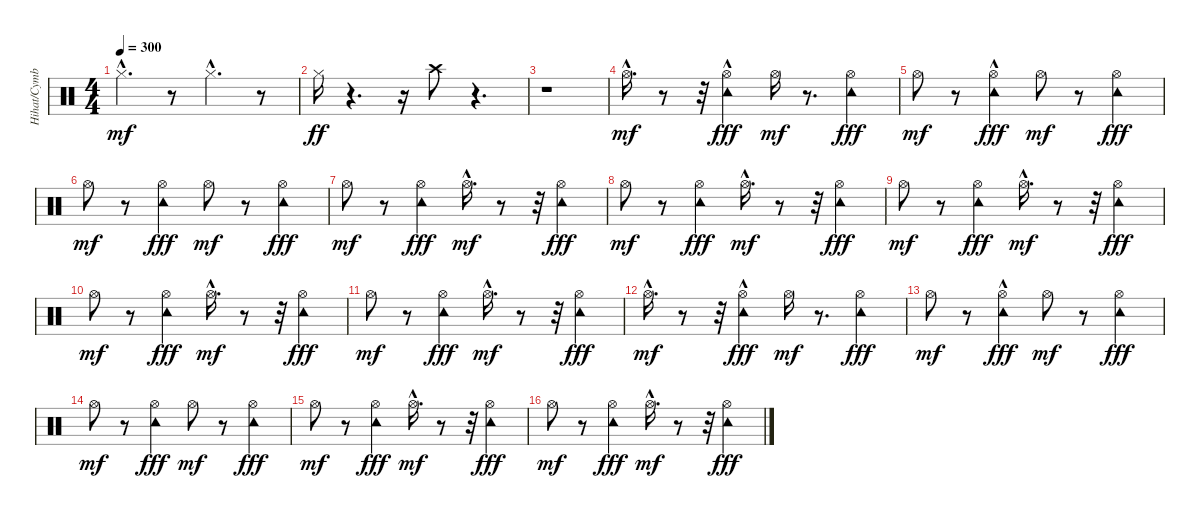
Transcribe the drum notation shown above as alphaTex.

\track ("Hihat/Cymbals/Tambourine" "Hihat/Cymb") {instrument percussion}
\staff {score}
\articulation defaults
\ts (4 4)
\tempo 300
\clef neutral
\ks c "Hi-Hat (closed)"{hac}.4{d dy mf}
r.8 "Hi-Hat (closed)"{hac}.4{d} r.8 |
"Hi-Hat (closed)".16{dy ff} r.4{d} r.16 "Crash high (hit)".8 r.4{d} |
r.1 |
"Hi-Hat (open)"{hac}.16{d dy mf} r.8 r.32 ("Hi-Hat (open)"{hac} "Tambourine (hit)").4{dy fff} "Hi-Hat (open)".16{dy mf} r.8{d} ("Hi-Hat (open)" "Tambourine (hit)").4{dy fff} |
"Hi-Hat (open)".8{dy mf} r.8 ("Hi-Hat (open)"{hac} "Tambourine (hit)").4{dy fff} "Hi-Hat (open)".8{dy mf} r.8 ("Hi-Hat (open)" "Tambourine (hit)").4{dy fff} |
"Hi-Hat (open)".8{dy mf} r.8 ("Hi-Hat (open)" "Tambourine (hit)").4{dy fff} "Hi-Hat (open)".8{dy mf} r.8 ("Hi-Hat (open)" "Tambourine (hit)").4{dy fff} |
"Hi-Hat (open)".8{dy mf} r.8 ("Hi-Hat (open)" "Tambourine (hit)").4{dy fff} "Hi-Hat (open)"{hac}.16{d dy mf} r.8 r.32 ("Hi-Hat (open)" "Tambourine (hit)").4{dy fff} |
"Hi-Hat (open)".8{dy mf} r.8 ("Hi-Hat (open)" "Tambourine (hit)").4{dy fff} "Hi-Hat (open)"{hac}.16{d dy mf} r.8 r.32 ("Hi-Hat (open)" "Tambourine (hit)").4{dy fff} |
"Hi-Hat (open)".8{dy mf} r.8 ("Hi-Hat (open)" "Tambourine (hit)").4{dy fff} "Hi-Hat (open)"{hac}.16{d dy mf} r.8 r.32 ("Hi-Hat (open)" "Tambourine (hit)").4{dy fff} |
"Hi-Hat (open)".8{dy mf} r.8 ("Hi-Hat (open)" "Tambourine (hit)").4{dy fff} "Hi-Hat (open)"{hac}.16{d dy mf} r.8 r.32 ("Hi-Hat (open)" "Tambourine (hit)").4{dy fff} |
"Hi-Hat (open)".8{dy mf} r.8 ("Hi-Hat (open)" "Tambourine (hit)").4{dy fff} "Hi-Hat (open)"{hac}.16{d dy mf} r.8 r.32 ("Hi-Hat (open)" "Tambourine (hit)").4{dy fff} |
"Hi-Hat (open)"{hac}.16{d dy mf} r.8 r.32 ("Hi-Hat (open)"{hac} "Tambourine (hit)").4{dy fff} "Hi-Hat (open)".16{dy mf} r.8{d} ("Hi-Hat (open)" "Tambourine (hit)").4{dy fff} |
"Hi-Hat (open)".8{dy mf} r.8 ("Hi-Hat (open)"{hac} "Tambourine (hit)").4{dy fff} "Hi-Hat (open)".8{dy mf} r.8 ("Hi-Hat (open)" "Tambourine (hit)").4{dy fff} |
"Hi-Hat (open)".8{dy mf} r.8 ("Hi-Hat (open)" "Tambourine (hit)").4{dy fff} "Hi-Hat (open)".8{dy mf} r.8 ("Hi-Hat (open)" "Tambourine (hit)").4{dy fff} |
"Hi-Hat (open)".8{dy mf} r.8 ("Hi-Hat (open)" "Tambourine (hit)").4{dy fff} "Hi-Hat (open)"{hac}.16{d dy mf} r.8 r.32 ("Hi-Hat (open)" "Tambourine (hit)").4{dy fff} |
"Hi-Hat (open)".8{dy mf} r.8 ("Hi-Hat (open)" "Tambourine (hit)").4{dy fff} "Hi-Hat (open)"{hac}.16{d dy mf} r.8 r.32 ("Hi-Hat (open)" "Tambourine (hit)").4{dy fff}
